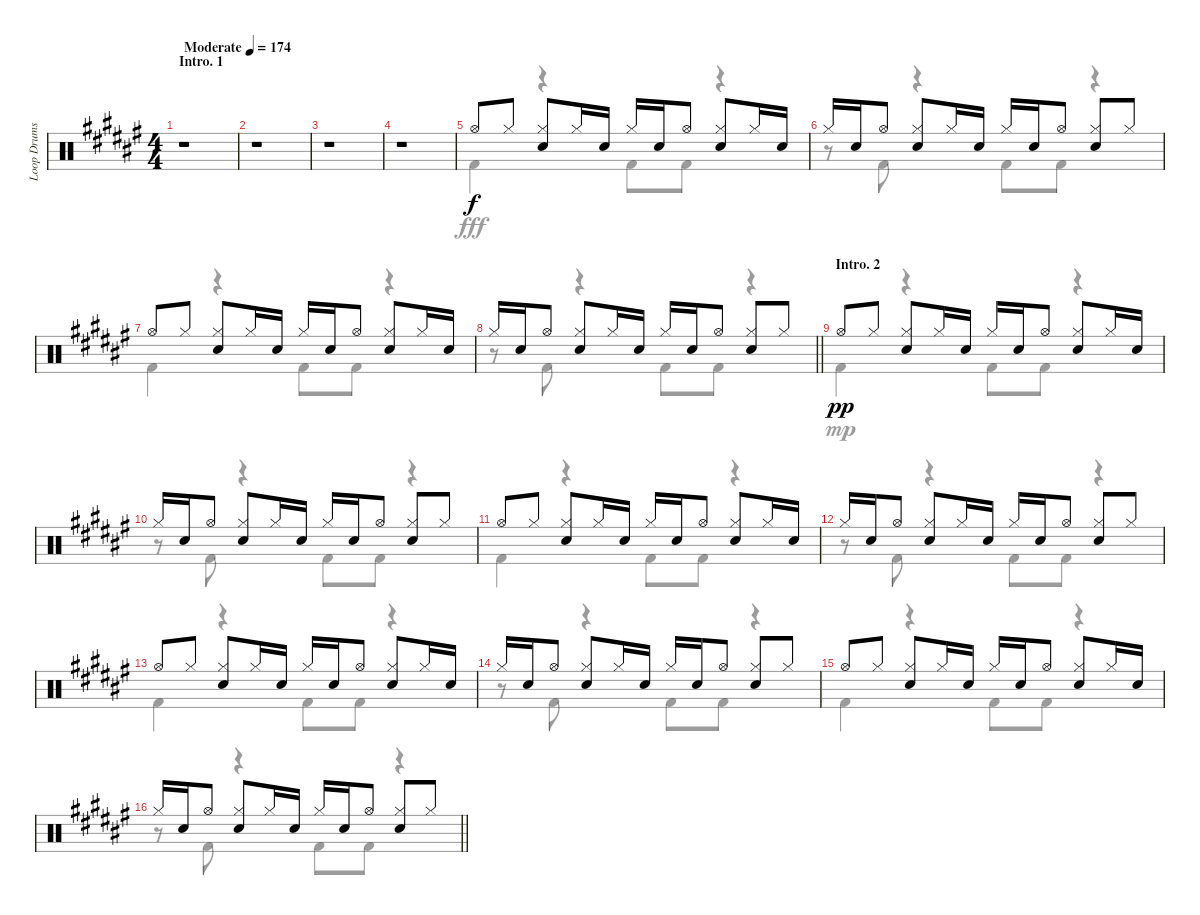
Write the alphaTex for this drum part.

\track ("Loop Drums" "Loop Drums") {instrument percussion}
\staff {score}
\articulation defaults
\voice
\ts (4 4)
\section ("" "Intro. 1")
\tempo (174 "Moderate")
\clef neutral
\ks f#
r.1{dy f} |
r.1 |
r.1 |
r.1 |
"Hi-Hat (open)".8 "Hi-Hat (closed)".8 ("Hi-Hat (closed)" "Electric Snare (hit)").8 "Hi-Hat (closed)".16 "Electric Snare (hit)".16 "Hi-Hat (closed)".16 "Electric Snare (hit)".16 "Hi-Hat (open)".8 ("Hi-Hat (closed)" "Electric Snare (hit)").8 "Hi-Hat (closed)".16 "Electric Snare (hit)".16 |
"Hi-Hat (closed)".16 "Electric Snare (hit)".16 "Hi-Hat (open)".8 ("Hi-Hat (closed)" "Electric Snare (hit)").8 "Hi-Hat (closed)".16 "Electric Snare (hit)".16 "Hi-Hat (closed)".16 "Electric Snare (hit)".16 "Hi-Hat (open)".8 ("Hi-Hat (closed)" "Electric Snare (hit)").8 "Hi-Hat (closed)".8 |
"Hi-Hat (open)".8 "Hi-Hat (closed)".8 ("Hi-Hat (closed)" "Electric Snare (hit)").8 "Hi-Hat (closed)".16 "Electric Snare (hit)".16 "Hi-Hat (closed)".16 "Electric Snare (hit)".16 "Hi-Hat (open)".8 ("Hi-Hat (closed)" "Electric Snare (hit)").8 "Hi-Hat (closed)".16 "Electric Snare (hit)".16 |
\barLineRight lightlight "Hi-Hat (closed)".16 "Electric Snare (hit)".16 "Hi-Hat (open)".8
("Hi-Hat (closed)" "Electric Snare (hit)").8 "Hi-Hat (closed)".16 "Electric Snare (hit)".16 "Hi-Hat (closed)".16 "Electric Snare (hit)".16 "Hi-Hat (open)".8 ("Hi-Hat (closed)" "Electric Snare (hit)").8 "Hi-Hat (closed)".8 |
\section ("" "Intro. 2")
"Hi-Hat (open)".8{dy pp} "Hi-Hat (closed)".8 ("Hi-Hat (closed)" "Electric Snare (hit)").8 "Hi-Hat (closed)".16 "Electric Snare (hit)".16 "Hi-Hat (closed)".16 "Electric Snare (hit)".16 "Hi-Hat (open)".8 ("Hi-Hat (closed)" "Electric Snare (hit)").8 "Hi-Hat (closed)".16 "Electric Snare (hit)".16 |
"Hi-Hat (closed)".16 "Electric Snare (hit)".16 "Hi-Hat (open)".8 ("Hi-Hat (closed)" "Electric Snare (hit)").8 "Hi-Hat (closed)".16 "Electric Snare (hit)".16 "Hi-Hat (closed)".16 "Electric Snare (hit)".16 "Hi-Hat (open)".8 ("Hi-Hat (closed)" "Electric Snare (hit)").8 "Hi-Hat (closed)".8 |
"Hi-Hat (open)".8 "Hi-Hat (closed)".8 ("Hi-Hat (closed)" "Electric Snare (hit)").8 "Hi-Hat (closed)".16 "Electric Snare (hit)".16 "Hi-Hat (closed)".16 "Electric Snare (hit)".16 "Hi-Hat (open)".8 ("Hi-Hat (closed)" "Electric Snare (hit)").8 "Hi-Hat (closed)".16 "Electric Snare (hit)".16 |
"Hi-Hat (closed)".16 "Electric Snare (hit)".16 "Hi-Hat (open)".8 ("Hi-Hat (closed)" "Electric Snare (hit)").8 "Hi-Hat (closed)".16 "Electric Snare (hit)".16 "Hi-Hat (closed)".16 "Electric Snare (hit)".16 "Hi-Hat (open)".8 ("Hi-Hat (closed)" "Electric Snare (hit)").8 "Hi-Hat (closed)".8 |
"Hi-Hat (open)".8 "Hi-Hat (closed)".8 ("Hi-Hat (closed)" "Electric Snare (hit)").8 "Hi-Hat (closed)".16 "Electric Snare (hit)".16 "Hi-Hat (closed)".16 "Electric Snare (hit)".16 "Hi-Hat (open)".8 ("Hi-Hat (closed)" "Electric Snare (hit)").8 "Hi-Hat (closed)".16 "Electric Snare (hit)".16 |
"Hi-Hat (closed)".16 "Electric Snare (hit)".16 "Hi-Hat (open)".8 ("Hi-Hat (closed)" "Electric Snare (hit)").8 "Hi-Hat (closed)".16 "Electric Snare (hit)".16 "Hi-Hat (closed)".16 "Electric Snare (hit)".16 "Hi-Hat (open)".8 ("Hi-Hat (closed)" "Electric Snare (hit)").8 "Hi-Hat (closed)".8 |
"Hi-Hat (open)".8 "Hi-Hat (closed)".8 ("Hi-Hat (closed)" "Electric Snare (hit)").8 "Hi-Hat (closed)".16 "Electric Snare (hit)".16 "Hi-Hat (closed)".16 "Electric Snare (hit)".16 "Hi-Hat (open)".8 ("Hi-Hat (closed)" "Electric Snare (hit)").8 "Hi-Hat (closed)".16 "Electric Snare (hit)".16 |
\barLineRight lightlight "Hi-Hat (closed)".16 "Electric Snare (hit)".16 "Hi-Hat (open)".8
("Hi-Hat (closed)" "Electric Snare (hit)").8 "Hi-Hat (closed)".16 "Electric Snare (hit)".16 "Hi-Hat (closed)".16 "Electric Snare (hit)".16 "Hi-Hat (open)".8 ("Hi-Hat (closed)" "Electric Snare (hit)").8 "Hi-Hat (closed)".8
\voice
\clef neutral
\ottava regular
\simile none
\ks f#
r.1{dy fff} |
r.1 |
r.1 |
r.1 |
"Kick (hit) 2".4 r.4 "Kick (hit) 2".8 "Kick (hit) 2".8 r.4 |
r.8 "Kick (hit) 2".8 r.4 "Kick (hit) 2".8 "Kick (hit) 2".8 r.4 |
"Kick (hit) 2".4 r.4 "Kick (hit) 2".8 "Kick (hit) 2".8 r.4 |
\barLineRight lightlight
r.8 "Kick (hit) 2".8 r.4 "Kick (hit) 2".8 "Kick (hit) 2".8 r.4 |
"Kick (hit) 2".4{dy mp} r.4 "Kick (hit) 2".8 "Kick (hit) 2".8 r.4 |
r.8 "Kick (hit) 2".8 r.4 "Kick (hit) 2".8 "Kick (hit) 2".8 r.4 |
"Kick (hit) 2".4 r.4 "Kick (hit) 2".8 "Kick (hit) 2".8 r.4 |
r.8 "Kick (hit) 2".8 r.4 "Kick (hit) 2".8 "Kick (hit) 2".8 r.4 |
"Kick (hit) 2".4 r.4 "Kick (hit) 2".8 "Kick (hit) 2".8 r.4 |
r.8 "Kick (hit) 2".8 r.4 "Kick (hit) 2".8 "Kick (hit) 2".8 r.4 |
"Kick (hit) 2".4 r.4 "Kick (hit) 2".8 "Kick (hit) 2".8 r.4 |
\barLineRight lightlight
r.8 "Kick (hit) 2".8 r.4 "Kick (hit) 2".8 "Kick (hit) 2".8 r.4
